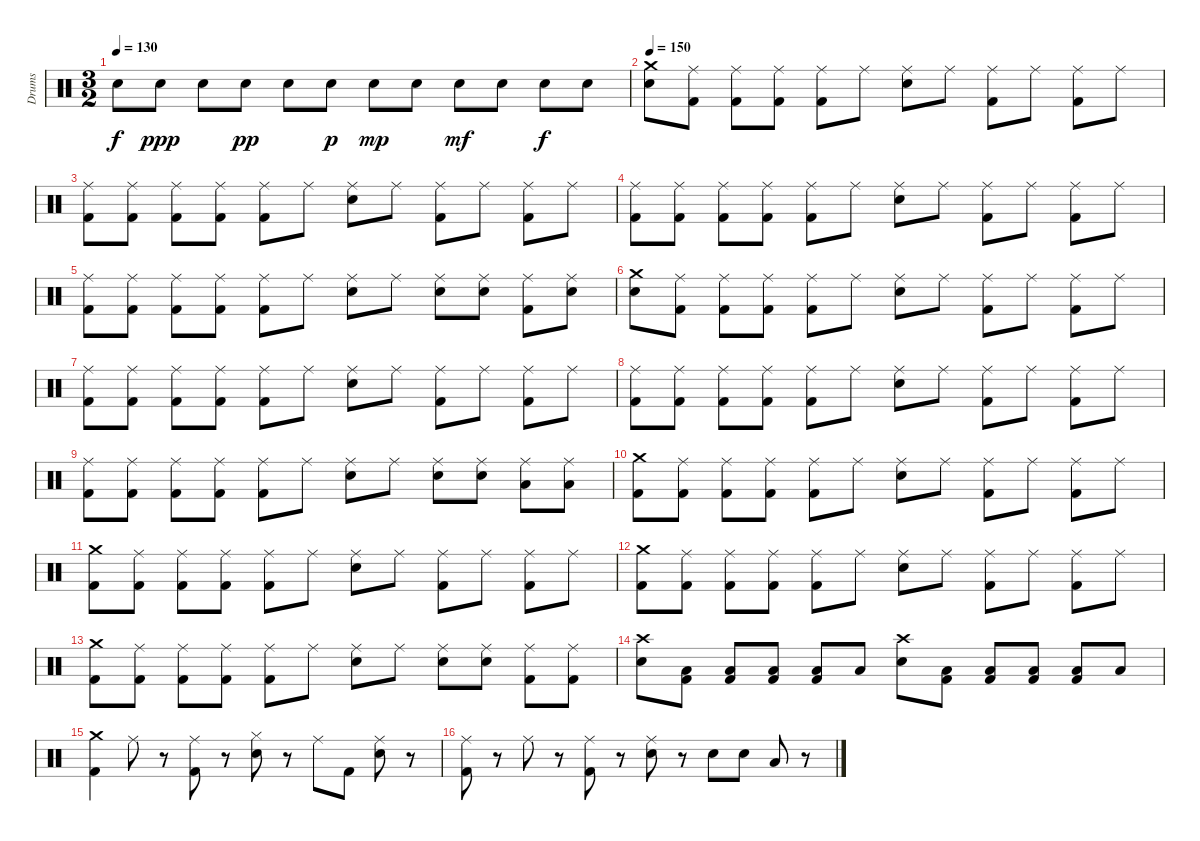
\track ("Drums" "Drums") {instrument percussion}
\staff {score}
\articulation defaults
\ts (3 2)
\tempo 130
\clef neutral
\ks c "Electric Snare (hit)".8{dy f volume 15} "Electric Snare (hit)".8{dy ppp} "Electric Snare (hit)".8 "Electric Snare (hit)".8{dy pp} "Electric Snare (hit)".8 "Electric Snare (hit)".8{dy p} "Electric Snare (hit)".8{dy mp} "Electric Snare (hit)".8 "Electric Snare (hit)".8{dy mf} "Electric Snare (hit)".8 "Electric Snare (hit)".8{dy f} "Electric Snare (hit)".8
|
\tempo 150
("Crash medium (hit)" "Electric Snare (hit)").8 ("Ride (middle)" "Kick (hit) 2").8 ("Ride (middle)" "Kick (hit) 2").8 ("Kick (hit) 2" "Ride (middle)").8 ("Ride (middle)" "Kick (hit) 2").8 "Ride (middle)".8 ("Electric Snare (hit)" "Ride (middle)").8 "Ride (middle)".8 ("Kick (hit) 2" "Ride (middle)").8 "Ride (middle)".8 ("Ride (middle)" "Kick (hit) 2").8 "Ride (middle)".8 |
("Kick (hit) 2" "Ride (middle)").8 ("Ride (middle)" "Kick (hit) 2").8 ("Ride (middle)" "Kick (hit) 2").8 ("Ride (middle)" "Kick (hit) 2").8 ("Kick (hit) 2" "Ride (middle)").8 "Ride (middle)".8 ("Electric Snare (hit)" "Ride (middle)").8 "Ride (middle)".8 ("Kick (hit) 2" "Ride (middle)").8 "Ride (middle)".8 ("Kick (hit) 2" "Ride (middle)").8 "Ride (middle)".8 |
("Kick (hit) 2" "Ride (middle)").8 ("Kick (hit) 2" "Ride (middle)").8 ("Ride (middle)" "Kick (hit) 2").8 ("Ride (middle)" "Kick (hit) 2").8 ("Kick (hit) 2" "Ride (middle)").8 "Ride (middle)".8 ("Electric Snare (hit)" "Ride (middle)").8 "Ride (middle)".8 ("Ride (middle)" "Kick (hit) 2").8 "Ride (middle)".8 ("Ride (middle)" "Kick (hit) 2").8 "Ride (middle)".8 |
("Kick (hit) 2" "Ride (middle)").8 ("Ride (middle)" "Kick (hit) 2").8 ("Kick (hit) 2" "Ride (middle)").8 ("Kick (hit) 2" "Ride (middle)").8 ("Ride (middle)" "Kick (hit) 2").8 "Ride (middle)".8 ("Ride (middle)" "Electric Snare (hit)").8 "Ride (middle)".8 ("Ride (middle)" "Electric Snare (hit)").8 ("Electric Snare (hit)" "Ride (middle)").8 ("Kick (hit) 2" "Ride (middle)").8 ("Electric Snare (hit)" "Ride (middle)").8 |
("Crash medium (hit)" "Electric Snare (hit)").8 ("Ride (middle)" "Kick (hit) 2").8 ("Kick (hit) 2" "Ride (middle)").8 ("Kick (hit) 2" "Ride (middle)").8 ("Kick (hit) 2" "Ride (middle)").8 "Ride (middle)".8 ("Electric Snare (hit)" "Ride (middle)").8 "Ride (middle)".8 ("Kick (hit) 2" "Ride (middle)").8 "Ride (middle)".8 ("Kick (hit) 2" "Ride (middle)").8 "Ride (middle)".8 |
("Kick (hit) 2" "Ride (middle)").8 ("Kick (hit) 2" "Ride (middle)").8 ("Ride (middle)" "Kick (hit) 2").8 ("Kick (hit) 2" "Ride (middle)").8 ("Kick (hit) 2" "Ride (middle)").8 "Ride (middle)".8 ("Ride (middle)" "Electric Snare (hit)").8 "Ride (middle)".8 ("Ride (middle)" "Kick (hit) 2").8 "Ride (middle)".8 ("Ride (middle)" "Kick (hit) 2").8 "Ride (middle)".8 |
("Ride (middle)" "Kick (hit) 2").8 ("Ride (middle)" "Kick (hit) 2").8 ("Ride (middle)" "Kick (hit) 2").8 ("Kick (hit) 2" "Ride (middle)").8 ("Kick (hit) 2" "Ride (middle)").8 "Ride (middle)".8 ("Electric Snare (hit)" "Ride (middle)").8 "Ride (middle)".8 ("Ride (middle)" "Kick (hit) 2").8 "Ride (middle)".8 ("Ride (middle)" "Kick (hit) 2").8 "Ride (middle)".8 |
("Kick (hit) 2" "Ride (middle)").8 ("Kick (hit) 2" "Ride (middle)").8 ("Kick (hit) 2" "Ride (middle)").8 ("Kick (hit) 2" "Ride (middle)").8 ("Ride (middle)" "Kick (hit) 2").8 "Ride (middle)".8 ("Ride (middle)" "Electric Snare (hit)").8 "Ride (middle)".8 ("Electric Snare (hit)" "Ride (middle)").8 ("Electric Snare (hit)" "Ride (middle)").8 ("Low Floor Tom (hit)" "Ride (middle)").8 ("Ride (middle)" "Low Floor Tom (hit)").8 |
("Crash medium (hit)" "Kick (hit) 2").8 ("Ride (middle)" "Kick (hit) 2").8 ("Kick (hit) 2" "Ride (middle)").8 ("Kick (hit) 2" "Ride (middle)").8 ("Kick (hit) 2" "Ride (middle)").8 "Ride (middle)".8 ("Electric Snare (hit)" "Ride (middle)").8 "Ride (middle)".8 ("Kick (hit) 2" "Ride (middle)").8 "Ride (middle)".8 ("Kick (hit) 2" "Ride (middle)").8 "Ride (middle)".8 |
("Crash medium (hit)" "Kick (hit) 2").8 ("Kick (hit) 2" "Ride (middle)").8 ("Kick (hit) 2" "Ride (middle)").8 ("Kick (hit) 2" "Ride (middle)").8 ("Kick (hit) 2" "Ride (middle)").8 "Ride (middle)".8 ("Electric Snare (hit)" "Ride (middle)").8 "Ride (middle)".8 ("Ride (middle)" "Kick (hit) 2").8 "Ride (middle)".8 ("Ride (middle)" "Kick (hit) 2").8 "Ride (middle)".8 |
("Kick (hit) 2" "Crash medium (hit)").8 ("Ride (middle)" "Kick (hit) 2").8 ("Kick (hit) 2" "Ride (middle)").8 ("Ride (middle)" "Kick (hit) 2").8 ("Ride (middle)" "Kick (hit) 2").8 "Ride (middle)".8 ("Ride (middle)" "Electric Snare (hit)").8 "Ride (middle)".8 ("Ride (middle)" "Kick (hit) 2").8 "Ride (middle)".8 ("Ride (middle)" "Kick (hit) 2").8 "Ride (middle)".8 |
("Crash medium (hit)" "Kick (hit) 2").8 ("Kick (hit) 2" "Ride (middle)").8 ("Ride (middle)" "Kick (hit) 2").8 ("Ride (middle)" "Kick (hit) 2").8 ("Kick (hit) 2" "Ride (middle)").8 "Ride (middle)".8 ("Electric Snare (hit)" "Ride (middle)").8 "Ride (middle)".8 ("Electric Snare (hit)" "Ride (middle)").8 ("Electric Snare (hit)" "Ride (middle)").8 ("Ride (middle)" "Kick (hit) 2").8 ("Ride (middle)" "Kick (hit) 2").8 |
("Crash high (hit)" "Electric Snare (hit)").8 ("Low Floor Tom (hit)" "Kick (hit) 2").8 ("Kick (hit) 2" "Low Floor Tom (hit)").8 ("Kick (hit) 2" "Low Floor Tom (hit)").8 ("Low Floor Tom (hit)" "Kick (hit) 2").8 "Low Floor Tom (hit)".8 ("Crash high (hit)" "Electric Snare (hit)").8 ("Kick (hit) 2" "Low Floor Tom (hit)").8 ("Low Floor Tom (hit)" "Kick (hit) 2").8 ("Low Floor Tom (hit)" "Kick (hit) 2").8 ("Low Floor Tom (hit)" "Kick (hit) 2").8 "Low Floor Tom (hit)".8 |
("Crash medium (hit)" "Kick (hit) 2").4 "Ride (middle)".8 r.8 ("Ride (middle)" "Kick (hit) 2").8 r.8 ("Hi-Hat (closed)" "Electric Snare (hit)").8 r.8 "Ride (middle)".8 "Kick (hit) 2".8 ("Ride (middle)" "Electric Snare (hit)").8 r.8 |
("Kick (hit) 2" "Ride (middle)").8 r.8 "Ride (middle)".8 r.8 ("Ride (middle)" "Kick (hit) 2").8 r.8 ("Ride (middle)" "Electric Snare (hit)").8 r.8 "Electric Snare (hit)".8 "Electric Snare (hit)".8 "Low Floor Tom (hit)".8 r.8
